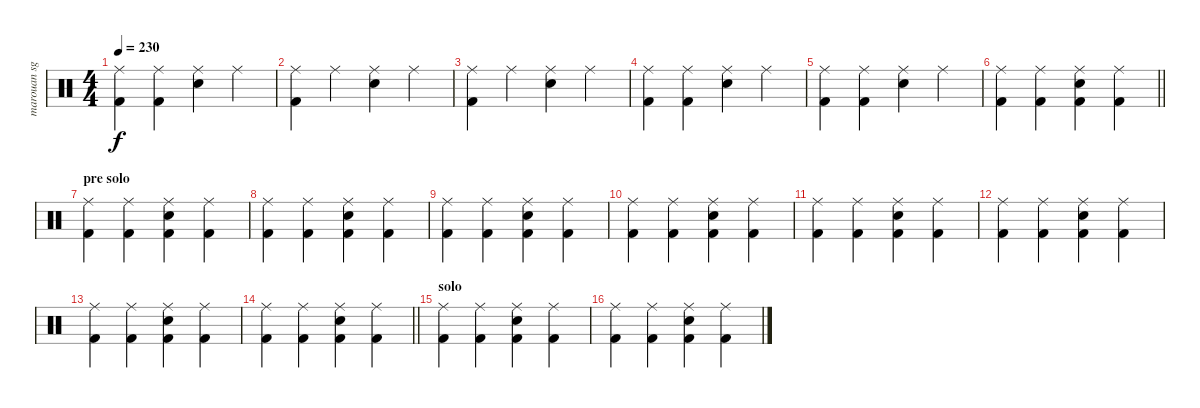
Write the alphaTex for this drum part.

\track ("marouan sghir" "marouan sg") {instrument percussion}
\staff {score}
\articulation defaults
\ts (4 4)
\tempo 230
\clef neutral
\ks c
("Ride (middle)" "Kick (hit) 2").4{dy f} ("Ride (middle)" "Kick (hit) 2").4 ("Ride (middle)" "Snare (hit) 2").4 "Ride (middle)".4 |
("Ride (middle)" "Kick (hit) 2").4 "Ride (middle)".4 ("Ride (middle)" "Snare (hit) 2").4 "Ride (middle)".4 |
("Ride (middle)" "Kick (hit) 2").4 "Ride (middle)".4 ("Ride (middle)" "Snare (hit) 2").4 "Ride (middle)".4 |
("Ride (middle)" "Kick (hit) 2").4 ("Ride (middle)" "Kick (hit) 2").4 ("Ride (middle)" "Snare (hit) 2").4 "Ride (middle)".4 |
("Ride (middle)" "Kick (hit) 2").4 ("Ride (middle)" "Kick (hit) 2").4 ("Ride (middle)" "Snare (hit) 2").4 "Ride (middle)".4 |
\barLineRight lightlight
("Ride (middle)" "Kick (hit) 2").4 ("Ride (middle)" "Kick (hit) 2").4 ("Ride (middle)" "Snare (hit) 2" "Kick (hit) 2").4 ("Ride (middle)" "Kick (hit) 2").4 |
\section ("" "pre solo")
("Ride (middle)" "Kick (hit) 2").4 ("Ride (middle)" "Kick (hit) 2").4 ("Ride (middle)" "Snare (hit) 2" "Kick (hit) 2").4 ("Ride (middle)" "Kick (hit) 2").4 |
("Ride (middle)" "Kick (hit) 2").4 ("Ride (middle)" "Kick (hit) 2").4 ("Ride (middle)" "Snare (hit) 2" "Kick (hit) 2").4 ("Ride (middle)" "Kick (hit) 2").4 |
("Ride (middle)" "Kick (hit) 2").4 ("Ride (middle)" "Kick (hit) 2").4 ("Ride (middle)" "Snare (hit) 2" "Kick (hit) 2").4 ("Ride (middle)" "Kick (hit) 2").4 |
("Ride (middle)" "Kick (hit) 2").4 ("Ride (middle)" "Kick (hit) 2").4 ("Ride (middle)" "Snare (hit) 2" "Kick (hit) 2").4 ("Ride (middle)" "Kick (hit) 2").4 |
("Ride (middle)" "Kick (hit) 2").4 ("Ride (middle)" "Kick (hit) 2").4 ("Ride (middle)" "Snare (hit) 2" "Kick (hit) 2").4 ("Ride (middle)" "Kick (hit) 2").4 |
("Ride (middle)" "Kick (hit) 2").4 ("Ride (middle)" "Kick (hit) 2").4 ("Ride (middle)" "Snare (hit) 2" "Kick (hit) 2").4 ("Ride (middle)" "Kick (hit) 2").4 |
("Ride (middle)" "Kick (hit) 2").4 ("Ride (middle)" "Kick (hit) 2").4 ("Ride (middle)" "Snare (hit) 2" "Kick (hit) 2").4 ("Ride (middle)" "Kick (hit) 2").4 |
\barLineRight lightlight
("Ride (middle)" "Kick (hit) 2").4 ("Ride (middle)" "Kick (hit) 2").4 ("Ride (middle)" "Snare (hit) 2" "Kick (hit) 2").4 ("Ride (middle)" "Kick (hit) 2").4 |
\section ("" "solo")
("Ride (middle)" "Kick (hit) 2").4 ("Ride (middle)" "Kick (hit) 2").4 ("Ride (middle)" "Snare (hit) 2" "Kick (hit) 2").4 ("Ride (middle)" "Kick (hit) 2").4 |
("Ride (middle)" "Kick (hit) 2").4 ("Ride (middle)" "Kick (hit) 2").4 ("Ride (middle)" "Snare (hit) 2" "Kick (hit) 2").4 ("Ride (middle)" "Kick (hit) 2").4
